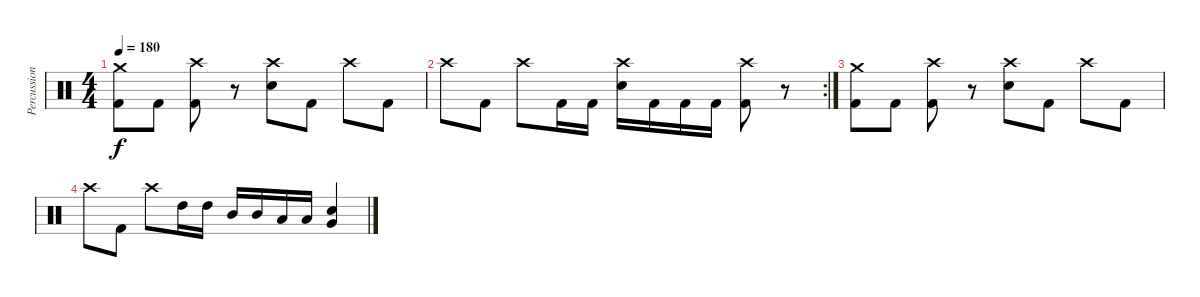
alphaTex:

\track ("Percussion" "Percussion") {instrument percussion}
\staff {score}
\articulation defaults
\ts (4 4)
\tempo 180
\clef neutral
\ks c
("Crash medium (hit)" "Kick (hit) 2").8{dy f} "Kick (hit) 2".8 ("Crash high (hit)" "Kick (hit) 2").8 r.8 ("Crash high (hit)" "Electric Snare (hit)").8 "Kick (hit) 2".8 "Crash high (hit)".8 "Kick (hit) 2".8 |
\rc 2 "Crash high (hit)".8 "Kick (hit) 2".8 "Crash high (hit)".8 "Kick (hit) 2".16 "Kick (hit) 2".16
("Crash high (hit)" "Electric Snare (hit)").16 "Kick (hit) 2".16 "Kick (hit) 2".16 "Kick (hit) 2".16 ("Crash high (hit)" "Kick (hit) 2").8 r.8 |
("Crash medium (hit)" "Kick (hit) 2").8 "Kick (hit) 2".8 ("Crash high (hit)" "Kick (hit) 2").8 r.8 ("Crash high (hit)" "Electric Snare (hit)").8 "Kick (hit) 2".8 "Crash high (hit)".8 "Kick (hit) 2".8 |
"Crash high (hit)".8 "Kick (hit) 2".8 "Crash high (hit)".8 "High Tom (hit)".16 "High Tom (hit)".16 "Mid Tom (hit)".16 "Mid Tom (hit)".16 "Low Tom (hit)".16 "Low Tom (hit)".16 ("Electric Snare (hit)" "Very Low Tom (hit)").4
